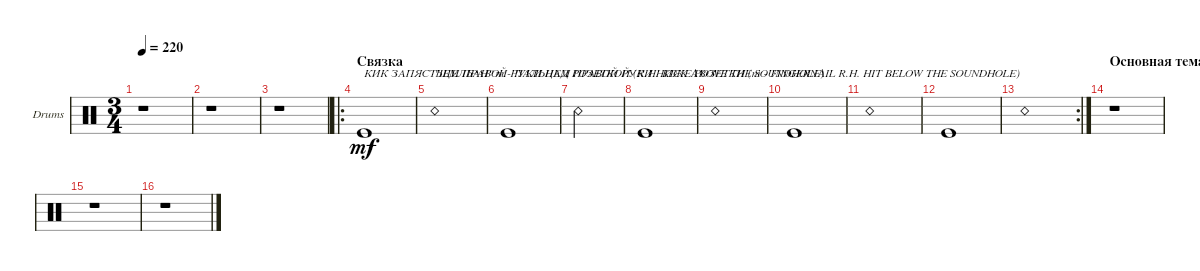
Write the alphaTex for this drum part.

\defaultSystemsLayout 4
\bracketExtendMode groupsimilarinstruments
\firstSystemTrackNameOrientation horizontal
\otherSystemsTrackNameOrientation horizontal
\track ("Drumkit" "Drums") {instrument percussion}
\staff {score}
\articulation defaults
\ts (3 4)
\tempo 220
\clef neutral
\scale
0.333333
\ks c
r.1{dy mf} |
r.1 |
r.1 |
\ro
\section ("" "Связка")
"Kick (hit)".1{txt "КИК ЗАПЯСТЬЕМ ПРАВОЙ РУКИ НАД РОЗЕТКОЙ (R.H. KICK ABOVE THE SOUNDHOLE)"} |
"Snare (rim shot)".1{txt "\"ЩЕЛБАН\" m - ПАЛЬЦЕМ ПРАВОЙ РУКИ НИЖЕ РОЗЕТКИ (m - FINGERNAIL R.H. HIT BELOW THE SOUNDHOLE)"} |
"Kick (hit)".1 |
"Snare (rim shot)".2 |
"Kick (hit)".1 |
"Snare (rim shot)".1 |
"Kick (hit)".1 |
"Snare (rim shot)".1 |
"Kick (hit)".1 |
\rc 2 "Snare (rim shot)".1
|
\section ("" "Основная тема")
r.1 |
r.1 |
r.1
